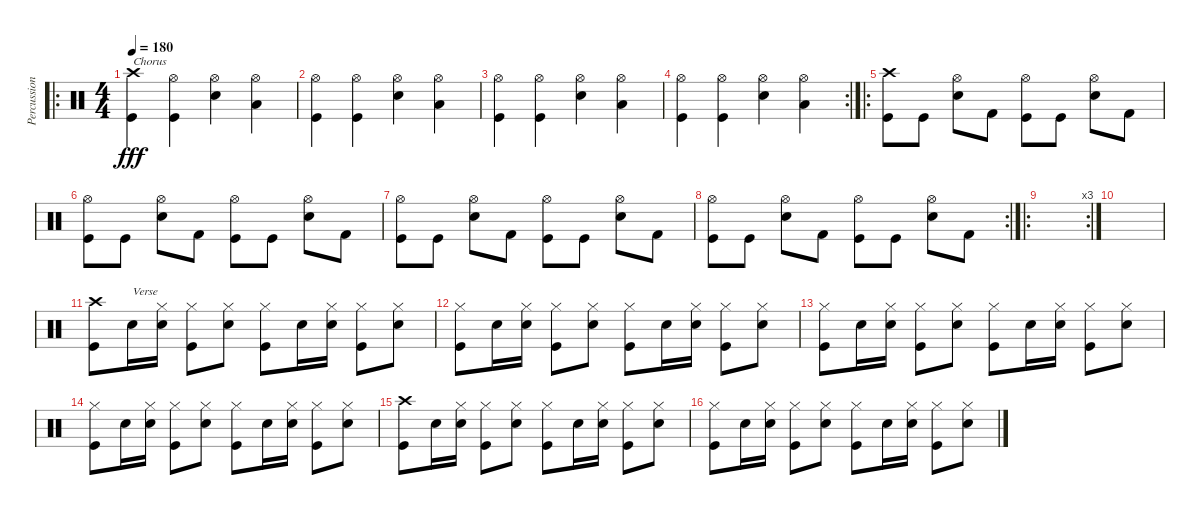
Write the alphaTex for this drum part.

\track ("Percussions" "Percussion") {instrument percussion}
\staff {score}
\articulation defaults
\ro
\ts (4 4)
\tempo 180
\clef neutral
\ks c
("Crash high (hit)" "Kick (hit)").4{txt "Chorus" dy fff} ("Hi-Hat (open)" "Kick (hit)").4 ("Hi-Hat (open)" "Electric Snare (hit)").4 ("Hi-Hat (open)" "Low Tom (hit)").4 |
("Hi-Hat (open)" "Kick (hit)").4 ("Hi-Hat (open)" "Kick (hit)").4 ("Hi-Hat (open)" "Electric Snare (hit)").4 ("Hi-Hat (open)" "Low Tom (hit)").4 |
("Hi-Hat (open)" "Kick (hit)").4 ("Hi-Hat (open)" "Kick (hit)").4 ("Hi-Hat (open)" "Electric Snare (hit)").4 ("Hi-Hat (open)" "Low Tom (hit)").4 |
\rc 2
("Hi-Hat (open)" "Kick (hit)").4 ("Hi-Hat (open)" "Kick (hit)").4 ("Hi-Hat (open)" "Electric Snare (hit)").4 ("Hi-Hat (open)" "Low Tom (hit)").4 |
\ro
("Crash high (hit)" "Kick (hit)").8 "Kick (hit)".8 ("Hi-Hat (open)" "Electric Snare (hit)").8 "Kick (hit) 2".8 ("Hi-Hat (open)" "Kick (hit)").8 "Kick (hit)".8 ("Hi-Hat (open)" "Electric Snare (hit)").8 "Kick (hit) 2".8 |
("Hi-Hat (open)" "Kick (hit)").8 "Kick (hit)".8 ("Hi-Hat (open)" "Electric Snare (hit)").8 "Kick (hit) 2".8 ("Hi-Hat (open)" "Kick (hit)").8 "Kick (hit)".8 ("Hi-Hat (open)" "Electric Snare (hit)").8 "Kick (hit) 2".8 |
("Hi-Hat (open)" "Kick (hit)").8 "Kick (hit)".8 ("Hi-Hat (open)" "Electric Snare (hit)").8 "Kick (hit) 2".8 ("Hi-Hat (open)" "Kick (hit)").8 "Kick (hit)".8 ("Hi-Hat (open)" "Electric Snare (hit)").8 "Kick (hit) 2".8 |
\rc 2
("Hi-Hat (open)" "Kick (hit)").8 "Kick (hit)".8 ("Hi-Hat (open)" "Electric Snare (hit)").8 "Kick (hit) 2".8 ("Hi-Hat (open)" "Kick (hit)").8 "Kick (hit)".8 ("Hi-Hat (open)" "Electric Snare (hit)").8 "Kick (hit) 2".8 |
\ro
\rc 3
|
|
("Crash high (hit)" "Kick (hit)").8 "Electric Snare (hit)".16{txt "Verse"} ("Hi-Hat (closed)" "Electric Snare (hit)").16 ("Hi-Hat (closed)" "Kick (hit)").8 ("Hi-Hat (closed)" "Electric Snare (hit)").8 ("Hi-Hat (closed)" "Kick (hit)").8 "Electric Snare (hit)".16 ("Hi-Hat (closed)" "Electric Snare (hit)").16 ("Hi-Hat (closed)" "Kick (hit)").8 ("Hi-Hat (closed)" "Electric Snare (hit)").8 |
("Hi-Hat (closed)" "Kick (hit)").8 "Electric Snare (hit)".16 ("Hi-Hat (closed)" "Electric Snare (hit)").16 ("Hi-Hat (closed)" "Kick (hit)").8 ("Hi-Hat (closed)" "Electric Snare (hit)").8 ("Hi-Hat (closed)" "Kick (hit)").8 "Electric Snare (hit)".16 ("Hi-Hat (closed)" "Electric Snare (hit)").16 ("Hi-Hat (closed)" "Kick (hit)").8 ("Hi-Hat (closed)" "Electric Snare (hit)").8 |
("Hi-Hat (closed)" "Kick (hit)").8 "Electric Snare (hit)".16 ("Hi-Hat (closed)" "Electric Snare (hit)").16 ("Hi-Hat (closed)" "Kick (hit)").8 ("Hi-Hat (closed)" "Electric Snare (hit)").8 ("Hi-Hat (closed)" "Kick (hit)").8 "Electric Snare (hit)".16 ("Hi-Hat (closed)" "Electric Snare (hit)").16 ("Hi-Hat (closed)" "Kick (hit)").8 ("Hi-Hat (closed)" "Electric Snare (hit)").8 |
("Hi-Hat (closed)" "Kick (hit)").8 "Electric Snare (hit)".16 ("Hi-Hat (closed)" "Electric Snare (hit)").16 ("Hi-Hat (closed)" "Kick (hit)").8 ("Hi-Hat (closed)" "Electric Snare (hit)").8 ("Hi-Hat (closed)" "Kick (hit)").8 "Electric Snare (hit)".16 ("Hi-Hat (closed)" "Electric Snare (hit)").16 ("Hi-Hat (closed)" "Kick (hit)").8 ("Hi-Hat (closed)" "Electric Snare (hit)").8 |
("Crash high (hit)" "Kick (hit)").8 "Electric Snare (hit)".16 ("Hi-Hat (closed)" "Electric Snare (hit)").16 ("Hi-Hat (closed)" "Kick (hit)").8 ("Hi-Hat (closed)" "Electric Snare (hit)").8 ("Hi-Hat (closed)" "Kick (hit)").8 "Electric Snare (hit)".16 ("Hi-Hat (closed)" "Electric Snare (hit)").16 ("Hi-Hat (closed)" "Kick (hit)").8 ("Hi-Hat (closed)" "Electric Snare (hit)").8 |
("Hi-Hat (closed)" "Kick (hit)").8 "Electric Snare (hit)".16 ("Hi-Hat (closed)" "Electric Snare (hit)").16 ("Hi-Hat (closed)" "Kick (hit)").8 ("Hi-Hat (closed)" "Electric Snare (hit)").8 ("Hi-Hat (closed)" "Kick (hit)").8 "Electric Snare (hit)".16 ("Hi-Hat (closed)" "Electric Snare (hit)").16 ("Hi-Hat (closed)" "Kick (hit)").8 ("Hi-Hat (closed)" "Electric Snare (hit)").8
